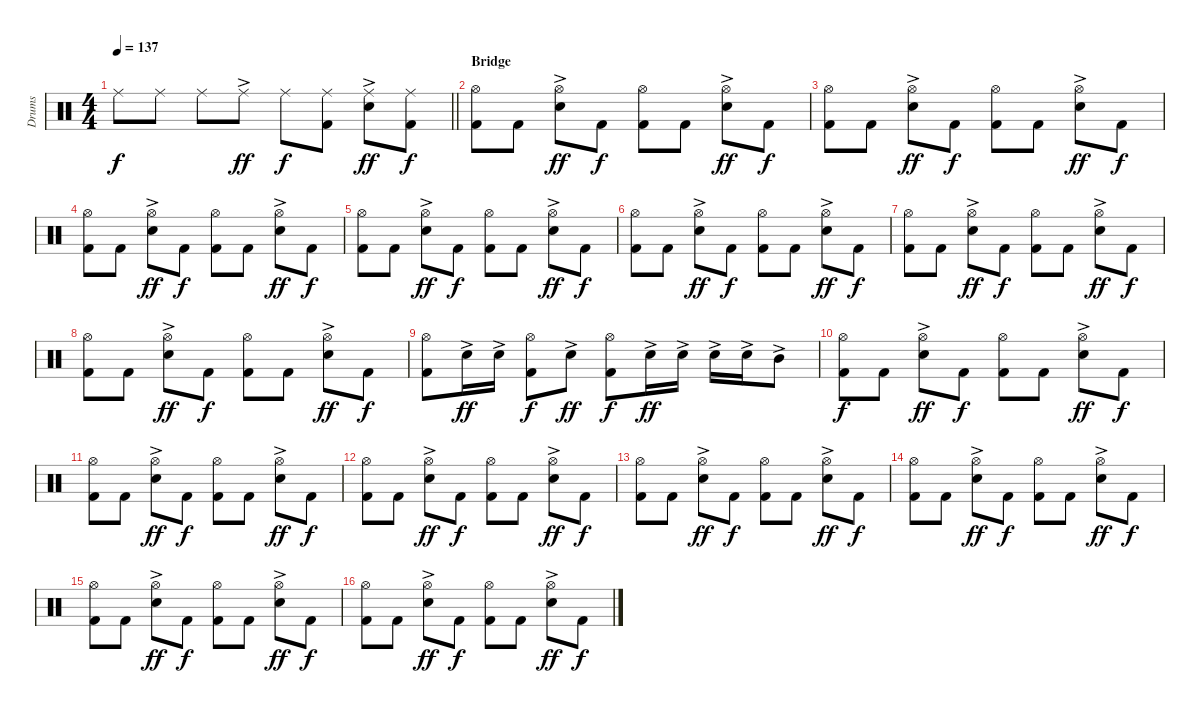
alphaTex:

\track ("Drums" "Drums") {instrument percussion}
\staff {score}
\articulation defaults
\ts (4 4)
\tempo 137
\clef neutral
\barLineRight lightlight
\ks c "Ride (middle)".8{dy f} "Ride (middle)".8 "Ride (middle)".8 "Ride (middle)"{ac}.8{dy ff} "Ride (middle)".8{dy f}
("Ride (middle)" "Kick (hit) 2").8 ("Ride (middle)" "Electric Snare (hit)"{ac}).8{dy ff} ("Ride (middle)" "Kick (hit) 2").8{dy f} |
\section ("" "Bridge")
("Hi-Hat (open)" "Kick (hit) 2").8 "Kick (hit) 2".8 ("Hi-Hat (open)" "Electric Snare (hit)"{ac}).8{dy ff} "Kick (hit) 2".8{dy f} ("Hi-Hat (open)" "Kick (hit) 2").8 "Kick (hit) 2".8 ("Hi-Hat (open)" "Electric Snare (hit)"{ac}).8{dy ff} "Kick (hit) 2".8{dy f} |
("Hi-Hat (open)" "Kick (hit) 2").8 "Kick (hit) 2".8 ("Hi-Hat (open)" "Electric Snare (hit)"{ac}).8{dy ff} "Kick (hit) 2".8{dy f} ("Hi-Hat (open)" "Kick (hit) 2").8 "Kick (hit) 2".8 ("Hi-Hat (open)" "Electric Snare (hit)"{ac}).8{dy ff} "Kick (hit) 2".8{dy f} |
("Hi-Hat (open)" "Kick (hit) 2").8 "Kick (hit) 2".8 ("Hi-Hat (open)" "Electric Snare (hit)"{ac}).8{dy ff} "Kick (hit) 2".8{dy f} ("Hi-Hat (open)" "Kick (hit) 2").8 "Kick (hit) 2".8 ("Hi-Hat (open)" "Electric Snare (hit)"{ac}).8{dy ff} "Kick (hit) 2".8{dy f} |
("Hi-Hat (open)" "Kick (hit) 2").8 "Kick (hit) 2".8 ("Hi-Hat (open)" "Electric Snare (hit)"{ac}).8{dy ff} "Kick (hit) 2".8{dy f} ("Hi-Hat (open)" "Kick (hit) 2").8 "Kick (hit) 2".8 ("Hi-Hat (open)" "Electric Snare (hit)"{ac}).8{dy ff} "Kick (hit) 2".8{dy f} |
("Hi-Hat (open)" "Kick (hit) 2").8 "Kick (hit) 2".8 ("Hi-Hat (open)" "Electric Snare (hit)"{ac}).8{dy ff} "Kick (hit) 2".8{dy f} ("Hi-Hat (open)" "Kick (hit) 2").8 "Kick (hit) 2".8 ("Hi-Hat (open)" "Electric Snare (hit)"{ac}).8{dy ff} "Kick (hit) 2".8{dy f} |
("Hi-Hat (open)" "Kick (hit) 2").8 "Kick (hit) 2".8 ("Hi-Hat (open)" "Electric Snare (hit)"{ac}).8{dy ff} "Kick (hit) 2".8{dy f} ("Hi-Hat (open)" "Kick (hit) 2").8 "Kick (hit) 2".8 ("Hi-Hat (open)" "Electric Snare (hit)"{ac}).8{dy ff} "Kick (hit) 2".8{dy f} |
("Hi-Hat (open)" "Kick (hit) 2").8 "Kick (hit) 2".8 ("Hi-Hat (open)" "Electric Snare (hit)"{ac}).8{dy ff} "Kick (hit) 2".8{dy f} ("Hi-Hat (open)" "Kick (hit) 2").8 "Kick (hit) 2".8 ("Hi-Hat (open)" "Electric Snare (hit)"{ac}).8{dy ff} "Kick (hit) 2".8{dy f} |
("Hi-Hat (open)" "Kick (hit) 2").8 "Electric Snare (hit)"{ac}.16{dy ff} "Electric Snare (hit)"{ac}.16 ("Hi-Hat (open)" "Kick (hit) 2").8{dy f} "Electric Snare (hit)"{ac}.8{dy ff} ("Hi-Hat (open)" "Kick (hit) 2").8{dy f} "Electric Snare (hit)"{ac}.16{dy ff} "Electric Snare (hit)"{ac}.16 "Electric Snare (hit)"{ac}.16 "Electric Snare (hit)"{ac}.16 "Mid Tom (hit)"{ac}.8 |
("Hi-Hat (open)" "Kick (hit) 2").8{dy f} "Kick (hit) 2".8 ("Hi-Hat (open)" "Electric Snare (hit)"{ac}).8{dy ff} "Kick (hit) 2".8{dy f} ("Hi-Hat (open)" "Kick (hit) 2").8 "Kick (hit) 2".8 ("Hi-Hat (open)" "Electric Snare (hit)"{ac}).8{dy ff} "Kick (hit) 2".8{dy f} |
("Hi-Hat (open)" "Kick (hit) 2").8 "Kick (hit) 2".8 ("Hi-Hat (open)" "Electric Snare (hit)"{ac}).8{dy ff} "Kick (hit) 2".8{dy f} ("Hi-Hat (open)" "Kick (hit) 2").8 "Kick (hit) 2".8 ("Hi-Hat (open)" "Electric Snare (hit)"{ac}).8{dy ff} "Kick (hit) 2".8{dy f} |
("Hi-Hat (open)" "Kick (hit) 2").8 "Kick (hit) 2".8 ("Hi-Hat (open)" "Electric Snare (hit)"{ac}).8{dy ff} "Kick (hit) 2".8{dy f} ("Hi-Hat (open)" "Kick (hit) 2").8 "Kick (hit) 2".8 ("Hi-Hat (open)" "Electric Snare (hit)"{ac}).8{dy ff} "Kick (hit) 2".8{dy f} |
("Hi-Hat (open)" "Kick (hit) 2").8 "Kick (hit) 2".8 ("Hi-Hat (open)" "Electric Snare (hit)"{ac}).8{dy ff} "Kick (hit) 2".8{dy f} ("Hi-Hat (open)" "Kick (hit) 2").8 "Kick (hit) 2".8 ("Hi-Hat (open)" "Electric Snare (hit)"{ac}).8{dy ff} "Kick (hit) 2".8{dy f} |
("Hi-Hat (open)" "Kick (hit) 2").8 "Kick (hit) 2".8 ("Hi-Hat (open)" "Electric Snare (hit)"{ac}).8{dy ff} "Kick (hit) 2".8{dy f} ("Hi-Hat (open)" "Kick (hit) 2").8 "Kick (hit) 2".8 ("Hi-Hat (open)" "Electric Snare (hit)"{ac}).8{dy ff} "Kick (hit) 2".8{dy f} |
("Hi-Hat (open)" "Kick (hit) 2").8 "Kick (hit) 2".8 ("Hi-Hat (open)" "Electric Snare (hit)"{ac}).8{dy ff} "Kick (hit) 2".8{dy f} ("Hi-Hat (open)" "Kick (hit) 2").8 "Kick (hit) 2".8 ("Hi-Hat (open)" "Electric Snare (hit)"{ac}).8{dy ff} "Kick (hit) 2".8{dy f} |
("Hi-Hat (open)" "Kick (hit) 2").8 "Kick (hit) 2".8 ("Hi-Hat (open)" "Electric Snare (hit)"{ac}).8{dy ff} "Kick (hit) 2".8{dy f} ("Hi-Hat (open)" "Kick (hit) 2").8 "Kick (hit) 2".8 ("Hi-Hat (open)" "Electric Snare (hit)"{ac}).8{dy ff} "Kick (hit) 2".8{dy f}
